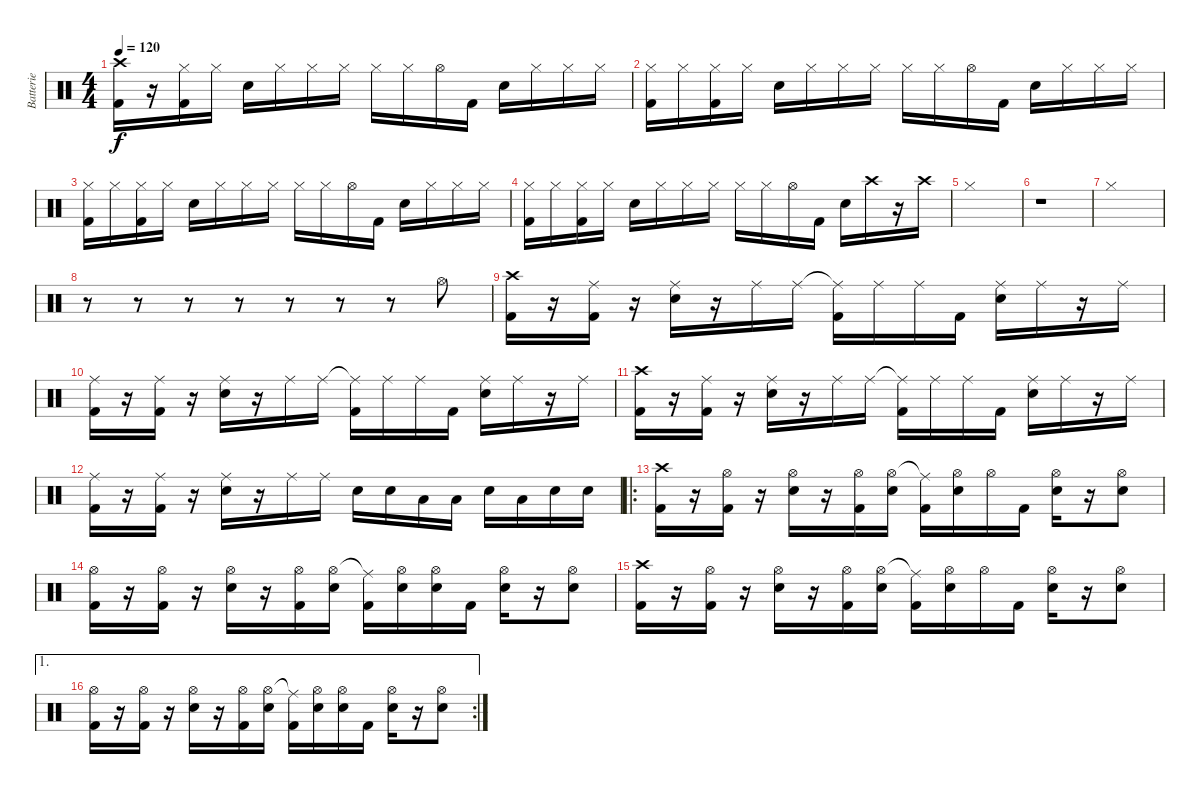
\track ("Batterie" "Batterie") {instrument percussion}
\staff {score}
\articulation defaults
\ts (4 4)
\tempo 120
\clef neutral
\ks c
("Crash high (hit)" "Kick (hit) 2").16{dy f} r.16 ("Hi-Hat (closed)" "Kick (hit) 2").16 "Hi-Hat (closed)".16 "Snare (hit) 2".16 "Hi-Hat (closed)".16 "Hi-Hat (closed)".16 "Hi-Hat (closed)".16 "Hi-Hat (closed)".16 "Hi-Hat (closed)".16 "Hi-Hat (open)".16 "Kick (hit) 2".16 "Snare (hit) 2".16 "Hi-Hat (closed)".16 "Hi-Hat (closed)".16 "Hi-Hat (closed)".16 |
("Hi-Hat (closed)" "Kick (hit) 2").16 "Hi-Hat (closed)".16 ("Hi-Hat (closed)" "Kick (hit) 2").16 "Hi-Hat (closed)".16 "Snare (hit) 2".16 "Hi-Hat (closed)".16 "Hi-Hat (closed)".16 "Hi-Hat (closed)".16 "Hi-Hat (closed)".16 "Hi-Hat (closed)".16 "Hi-Hat (open)".16 "Kick (hit) 2".16 "Snare (hit) 2".16 "Hi-Hat (closed)".16 "Hi-Hat (closed)".16 "Hi-Hat (closed)".16 |
("Hi-Hat (closed)" "Kick (hit) 2").16 "Hi-Hat (closed)".16 ("Hi-Hat (closed)" "Kick (hit) 2").16 "Hi-Hat (closed)".16 "Snare (hit) 2".16 "Hi-Hat (closed)".16 "Hi-Hat (closed)".16 "Hi-Hat (closed)".16 "Hi-Hat (closed)".16 "Hi-Hat (closed)".16 "Hi-Hat (open)".16 "Kick (hit) 2".16 "Snare (hit) 2".16 "Hi-Hat (closed)".16 "Hi-Hat (closed)".16 "Hi-Hat (closed)".16 |
("Hi-Hat (closed)" "Kick (hit) 2").16 "Hi-Hat (closed)".16 ("Hi-Hat (closed)" "Kick (hit) 2").16 "Hi-Hat (closed)".16 "Snare (hit) 2".16 "Hi-Hat (closed)".16 "Hi-Hat (closed)".16 "Hi-Hat (closed)".16 "Hi-Hat (closed)".16 "Hi-Hat (closed)".16 "Hi-Hat (open)".16 "Kick (hit) 2".16 "Snare (hit) 2".16 "Crash high (hit)".16 r.16 "Crash high (hit)".16 |
"Hi-Hat (closed)".1 |
r.1 |
"Hi-Hat (closed)".1 |
r.8 r.8 r.8 r.8 r.8 r.8 r.8 "Hi-Hat (open)".8 |
("Crash high (hit)" "Kick (hit) 2").16 r.16 ("Ride (middle)" "Kick (hit) 2").16 r.16 ("Ride (middle)" "Snare (hit) 2").16 r.16 "Ride (middle)".16 "Ride (middle)".16 ("Ride (middle)"{t} "Kick (hit) 2").16 "Ride (middle)".16 "Ride (middle)".16 "Kick (hit) 2".16 ("Ride (middle)" "Snare (hit) 2").16 "Ride (middle)".16 r.16 "Ride (middle)".16 |
("Ride (middle)" "Kick (hit) 2").16 r.16 ("Ride (middle)" "Kick (hit) 2").16 r.16 ("Ride (middle)" "Snare (hit) 2").16 r.16 "Ride (middle)".16 "Ride (middle)".16 ("Ride (middle)"{t} "Kick (hit) 2").16 "Ride (middle)".16 "Ride (middle)".16 "Kick (hit) 2".16 ("Ride (middle)" "Snare (hit) 2").16 "Ride (middle)".16 r.16 "Ride (middle)".16 |
("Crash high (hit)" "Kick (hit) 2").16 r.16 ("Ride (middle)" "Kick (hit) 2").16 r.16 ("Ride (middle)" "Snare (hit) 2").16 r.16 "Ride (middle)".16 "Ride (middle)".16 ("Ride (middle)"{t} "Kick (hit) 2").16 "Ride (middle)".16 "Ride (middle)".16 "Kick (hit) 2".16 ("Ride (middle)" "Snare (hit) 2").16 "Ride (middle)".16 r.16 "Ride (middle)".16 |
("Ride (middle)" "Kick (hit) 2").16 r.16 ("Ride (middle)" "Kick (hit) 2").16 r.16 ("Ride (middle)" "Snare (hit) 2").16 r.16 "Ride (middle)".16 "Ride (middle)".16 "Snare (hit) 2".16 "Snare (hit) 2".16 "Low Tom (hit)".16 "Low Tom (hit)".16 "Snare (hit) 2".16 "Low Tom (hit)".16 "Snare (hit) 2".16 "Snare (hit) 2".16 |
\ro
("Crash high (hit)" "Kick (hit) 2").16 r.16 ("Hi-Hat (open)" "Kick (hit) 2").16 r.16 ("Hi-Hat (open)" "Snare (hit) 2").16 r.16 ("Hi-Hat (open)" "Kick (hit) 2").16 ("Hi-Hat (open)" "Snare (hit) 2").16 ("Ride (middle)"{t} "Kick (hit) 2").16 ("Hi-Hat (open)" "Snare (hit) 2").16 "Hi-Hat (open)".16 "Kick (hit) 2".16 ("Hi-Hat (open)" "Snare (hit) 2").16 r.16 ("Hi-Hat (open)" "Snare (hit) 2").8 |
("Hi-Hat (open)" "Kick (hit) 2").16 r.16 ("Hi-Hat (open)" "Kick (hit) 2").16 r.16 ("Hi-Hat (open)" "Snare (hit) 2").16 r.16 ("Hi-Hat (open)" "Kick (hit) 2").16 ("Hi-Hat (open)" "Snare (hit) 2").16 ("Ride (middle)"{t} "Kick (hit) 2").16 ("Hi-Hat (open)" "Snare (hit) 2").16 ("Hi-Hat (open)" "Snare (hit) 2").16 "Kick (hit) 2".16 ("Hi-Hat (open)" "Snare (hit) 2").16 r.16 ("Hi-Hat (open)" "Snare (hit) 2").8 |
("Crash high (hit)" "Kick (hit) 2").16 r.16 ("Hi-Hat (open)" "Kick (hit) 2").16 r.16 ("Hi-Hat (open)" "Snare (hit) 2").16 r.16 ("Hi-Hat (open)" "Kick (hit) 2").16 ("Hi-Hat (open)" "Snare (hit) 2").16 ("Ride (middle)"{t} "Kick (hit) 2").16 ("Hi-Hat (open)" "Snare (hit) 2").16 "Hi-Hat (open)".16 "Kick (hit) 2".16 ("Hi-Hat (open)" "Snare (hit) 2").16 r.16 ("Hi-Hat (open)" "Snare (hit) 2").8 |
\ae 1
\rc 2
("Hi-Hat (open)" "Kick (hit) 2").16 r.16 ("Hi-Hat (open)" "Kick (hit) 2").16 r.16 ("Hi-Hat (open)" "Snare (hit) 2").16 r.16 ("Hi-Hat (open)" "Kick (hit) 2").16 ("Hi-Hat (open)" "Snare (hit) 2").16 ("Ride (middle)"{t} "Kick (hit) 2").16 ("Hi-Hat (open)" "Snare (hit) 2").16 ("Hi-Hat (open)" "Snare (hit) 2").16 "Kick (hit) 2".16 ("Hi-Hat (open)" "Snare (hit) 2").16 r.16 ("Hi-Hat (open)" "Snare (hit) 2").8
